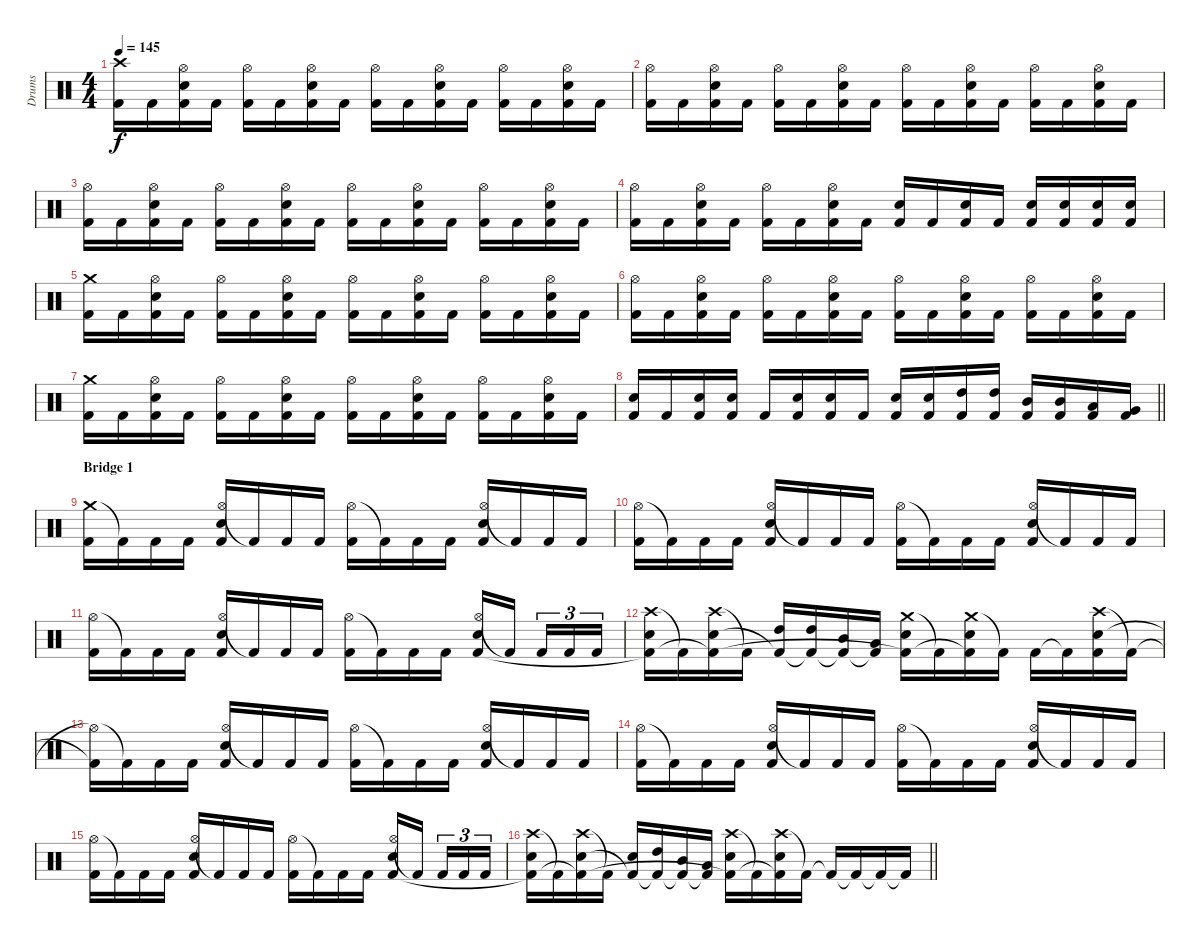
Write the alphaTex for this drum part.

\track ("Drums" "Drums") {instrument percussion}
\staff {score}
\articulation defaults
\ts (4 4)
\tempo 145
\clef neutral
\ks c
("Crash high (hit)" "Kick (hit) 2").16{dy f} "Kick (hit) 2".16 ("Hi-Hat (open)" "Electric Snare (hit)" "Kick (hit) 2").16 "Kick (hit) 2".16 ("Hi-Hat (open)" "Kick (hit) 2").16 "Kick (hit) 2".16 ("Hi-Hat (open)" "Electric Snare (hit)" "Kick (hit) 2").16 "Kick (hit) 2".16 ("Hi-Hat (open)" "Kick (hit) 2").16 "Kick (hit) 2".16 ("Hi-Hat (open)" "Electric Snare (hit)" "Kick (hit) 2").16 "Kick (hit) 2".16 ("Hi-Hat (open)" "Kick (hit) 2").16 "Kick (hit) 2".16 ("Hi-Hat (open)" "Electric Snare (hit)" "Kick (hit) 2").16 "Kick (hit) 2".16 |
("Hi-Hat (open)" "Kick (hit) 2").16 "Kick (hit) 2".16 ("Hi-Hat (open)" "Electric Snare (hit)" "Kick (hit) 2").16 "Kick (hit) 2".16 ("Hi-Hat (open)" "Kick (hit) 2").16 "Kick (hit) 2".16 ("Hi-Hat (open)" "Electric Snare (hit)" "Kick (hit) 2").16 "Kick (hit) 2".16 ("Hi-Hat (open)" "Kick (hit) 2").16 "Kick (hit) 2".16 ("Hi-Hat (open)" "Electric Snare (hit)" "Kick (hit) 2").16 "Kick (hit) 2".16 ("Hi-Hat (open)" "Kick (hit) 2").16 "Kick (hit) 2".16 ("Hi-Hat (open)" "Electric Snare (hit)" "Kick (hit) 2").16 "Kick (hit) 2".16 |
("Hi-Hat (open)" "Kick (hit) 2").16 "Kick (hit) 2".16 ("Hi-Hat (open)" "Electric Snare (hit)" "Kick (hit) 2").16 "Kick (hit) 2".16 ("Hi-Hat (open)" "Kick (hit) 2").16 "Kick (hit) 2".16 ("Hi-Hat (open)" "Electric Snare (hit)" "Kick (hit) 2").16 "Kick (hit) 2".16 ("Hi-Hat (open)" "Kick (hit) 2").16 "Kick (hit) 2".16 ("Hi-Hat (open)" "Electric Snare (hit)" "Kick (hit) 2").16 "Kick (hit) 2".16 ("Hi-Hat (open)" "Kick (hit) 2").16 "Kick (hit) 2".16 ("Hi-Hat (open)" "Electric Snare (hit)" "Kick (hit) 2").16 "Kick (hit) 2".16 |
("Hi-Hat (open)" "Kick (hit) 2").16 "Kick (hit) 2".16 ("Hi-Hat (open)" "Electric Snare (hit)" "Kick (hit) 2").16 "Kick (hit) 2".16 ("Hi-Hat (open)" "Kick (hit) 2").16 "Kick (hit) 2".16 ("Hi-Hat (open)" "Electric Snare (hit)" "Kick (hit) 2").16 "Kick (hit) 2".16 ("Electric Snare (hit)" "Kick (hit) 2").16 "Kick (hit) 2".16 ("Electric Snare (hit)" "Kick (hit) 2").16 "Kick (hit) 2".16 ("Electric Snare (hit)" "Kick (hit) 2").16 ("Electric Snare (hit)" "Kick (hit) 2").16 ("Electric Snare (hit)" "Kick (hit) 2").16 ("Electric Snare (hit)" "Kick (hit) 2").16 |
("Crash medium (hit)" "Kick (hit) 2").16 "Kick (hit) 2".16 ("Hi-Hat (open)" "Electric Snare (hit)" "Kick (hit) 2").16 "Kick (hit) 2".16 ("Hi-Hat (open)" "Kick (hit) 2").16 "Kick (hit) 2".16 ("Hi-Hat (open)" "Electric Snare (hit)" "Kick (hit) 2").16 "Kick (hit) 2".16 ("Hi-Hat (open)" "Kick (hit) 2").16 "Kick (hit) 2".16 ("Hi-Hat (open)" "Electric Snare (hit)" "Kick (hit) 2").16 "Kick (hit) 2".16 ("Hi-Hat (open)" "Kick (hit) 2").16 "Kick (hit) 2".16 ("Hi-Hat (open)" "Electric Snare (hit)" "Kick (hit) 2").16 "Kick (hit) 2".16 |
("Hi-Hat (open)" "Kick (hit) 2").16 "Kick (hit) 2".16 ("Hi-Hat (open)" "Electric Snare (hit)" "Kick (hit) 2").16 "Kick (hit) 2".16 ("Hi-Hat (open)" "Kick (hit) 2").16 "Kick (hit) 2".16 ("Hi-Hat (open)" "Electric Snare (hit)" "Kick (hit) 2").16 "Kick (hit) 2".16 ("Hi-Hat (open)" "Kick (hit) 2").16 "Kick (hit) 2".16 ("Hi-Hat (open)" "Electric Snare (hit)" "Kick (hit) 2").16 "Kick (hit) 2".16 ("Hi-Hat (open)" "Kick (hit) 2").16 "Kick (hit) 2".16 ("Hi-Hat (open)" "Electric Snare (hit)" "Kick (hit) 2").16 "Kick (hit) 2".16 |
("Crash medium (hit)" "Kick (hit) 2").16 "Kick (hit) 2".16 ("Hi-Hat (open)" "Electric Snare (hit)" "Kick (hit) 2").16 "Kick (hit) 2".16 ("Hi-Hat (open)" "Kick (hit) 2").16 "Kick (hit) 2".16 ("Hi-Hat (open)" "Electric Snare (hit)" "Kick (hit) 2").16 "Kick (hit) 2".16 ("Hi-Hat (open)" "Kick (hit) 2").16 "Kick (hit) 2".16 ("Hi-Hat (open)" "Electric Snare (hit)" "Kick (hit) 2").16 "Kick (hit) 2".16 ("Hi-Hat (open)" "Kick (hit) 2").16 "Kick (hit) 2".16 ("Hi-Hat (open)" "Electric Snare (hit)" "Kick (hit) 2").16 "Kick (hit) 2".16 |
\barLineRight lightlight
("Electric Snare (hit)" "Kick (hit) 2").16 "Kick (hit) 2".16 ("Electric Snare (hit)" "Kick (hit) 2").16 ("Electric Snare (hit)" "Kick (hit) 2").16 "Kick (hit) 2".16 ("Electric Snare (hit)" "Kick (hit) 2").16 ("Electric Snare (hit)" "Kick (hit) 2").16 "Kick (hit) 2".16 ("Electric Snare (hit)" "Kick (hit) 2").16 ("Electric Snare (hit)" "Kick (hit) 2").16 ("High Tom (hit)" "Kick (hit) 2").16 ("High Tom (hit)" "Kick (hit) 2").16 ("Mid Tom (hit)" "Kick (hit) 2").16 ("Mid Tom (hit)" "Kick (hit) 2").16 ("Low Tom (hit)" "Kick (hit) 2").16 ("Very Low Tom (hit)" "Kick (hit) 2").16 |
\section ("" "Bridge 1")
("Crash medium (hit)" "Kick (hit) 2").16 "Kick (hit) 2"{t}.16 "Kick (hit) 2".16 "Kick (hit) 2".16 ("Hi-Hat (open)" "Electric Snare (hit)" "Kick (hit) 2").16 "Kick (hit) 2"{t}.16 "Kick (hit) 2".16 "Kick (hit) 2".16 ("Hi-Hat (open)" "Kick (hit) 2").16 "Kick (hit) 2"{t}.16 "Kick (hit) 2".16 "Kick (hit) 2".16 ("Hi-Hat (open)" "Electric Snare (hit)" "Kick (hit) 2").16 "Kick (hit) 2"{t}.16 "Kick (hit) 2".16 "Kick (hit) 2".16 |
("Hi-Hat (open)" "Kick (hit) 2").16 "Kick (hit) 2"{t}.16 "Kick (hit) 2".16 "Kick (hit) 2".16 ("Hi-Hat (open)" "Electric Snare (hit)" "Kick (hit) 2").16 "Kick (hit) 2"{t}.16 "Kick (hit) 2".16 "Kick (hit) 2".16 ("Hi-Hat (open)" "Kick (hit) 2").16 "Kick (hit) 2"{t}.16 "Kick (hit) 2".16 "Kick (hit) 2".16 ("Hi-Hat (open)" "Electric Snare (hit)" "Kick (hit) 2").16 "Kick (hit) 2"{t}.16 "Kick (hit) 2".16 "Kick (hit) 2".16 |
("Hi-Hat (open)" "Kick (hit) 2").16 "Kick (hit) 2"{t}.16 "Kick (hit) 2".16 "Kick (hit) 2".16 ("Hi-Hat (open)" "Electric Snare (hit)" "Kick (hit) 2").16 "Kick (hit) 2"{t}.16 "Kick (hit) 2".16 "Kick (hit) 2".16 ("Hi-Hat (open)" "Kick (hit) 2").16 "Kick (hit) 2"{t}.16 "Kick (hit) 2".16 "Kick (hit) 2".16 ("Hi-Hat (open)" "Electric Snare (hit)" "Kick (hit) 2").16 "Kick (hit) 2"{t}.16{beam splitsecondary} "Kick (hit) 2".16{tu (3 2)} "Kick (hit) 2".16{tu (3 2)} "Kick (hit) 2".16{tu (3 2)} |
("Crash high (hit)" "Electric Snare (hit)" "Kick (hit) 2"{t}).16 "Kick (hit) 2"{t}.16 ("Crash high (hit)" "Electric Snare (hit)" "Kick (hit) 2"{t}).16 "Kick (hit) 2"{t}.16 ("High Tom (hit)" "Kick (hit) 2"{t}).16 ("High Tom (hit)" "Kick (hit) 2"{t}).16 ("Mid Tom (hit)" "Kick (hit) 2"{t}).16 ("Low Tom (hit)" "Kick (hit) 2"{t}).16 ("Crash medium (hit)" "Electric Snare (hit)" "Kick (hit) 2"{t}).16 "Kick (hit) 2"{t}.16 ("Crash medium (hit)" "Electric Snare (hit)" "Kick (hit) 2"{t}).16 "Kick (hit) 2"{t}.16 "Kick (hit) 2".16 "Kick (hit) 2"{t}.16 ("Crash high (hit)" "Electric Snare (hit)" "Kick (hit) 2").16 "Kick (hit) 2"{t}.16 |
("Hi-Hat (open)"{t} "Kick (hit) 2"{t}).16 "Kick (hit) 2"{t}.16 "Kick (hit) 2".16 "Kick (hit) 2".16 ("Hi-Hat (open)" "Electric Snare (hit)" "Kick (hit) 2").16 "Kick (hit) 2"{t}.16 "Kick (hit) 2".16 "Kick (hit) 2".16 ("Hi-Hat (open)" "Kick (hit) 2").16 "Kick (hit) 2"{t}.16 "Kick (hit) 2".16 "Kick (hit) 2".16 ("Hi-Hat (open)" "Electric Snare (hit)" "Kick (hit) 2").16 "Kick (hit) 2"{t}.16 "Kick (hit) 2".16 "Kick (hit) 2".16 |
("Hi-Hat (open)" "Kick (hit) 2").16 "Kick (hit) 2"{t}.16 "Kick (hit) 2".16 "Kick (hit) 2".16 ("Hi-Hat (open)" "Electric Snare (hit)" "Kick (hit) 2").16 "Kick (hit) 2"{t}.16 "Kick (hit) 2".16 "Kick (hit) 2".16 ("Hi-Hat (open)" "Kick (hit) 2").16 "Kick (hit) 2"{t}.16 "Kick (hit) 2".16 "Kick (hit) 2".16 ("Hi-Hat (open)" "Electric Snare (hit)" "Kick (hit) 2").16 "Kick (hit) 2"{t}.16 "Kick (hit) 2".16 "Kick (hit) 2".16 |
("Hi-Hat (open)" "Kick (hit) 2").16 "Kick (hit) 2"{t}.16 "Kick (hit) 2".16 "Kick (hit) 2".16 ("Hi-Hat (open)" "Electric Snare (hit)" "Kick (hit) 2").16 "Kick (hit) 2"{t}.16 "Kick (hit) 2".16 "Kick (hit) 2".16 ("Hi-Hat (open)" "Kick (hit) 2").16 "Kick (hit) 2"{t}.16 "Kick (hit) 2".16 "Kick (hit) 2".16 ("Hi-Hat (open)" "Electric Snare (hit)" "Kick (hit) 2").16 "Kick (hit) 2"{t}.16{beam splitsecondary} "Kick (hit) 2".16{tu (3 2)} "Kick (hit) 2".16{tu (3 2)} "Kick (hit) 2".16{tu (3 2)} |
\barLineRight lightlight
("Crash high (hit)" "Electric Snare (hit)" "Kick (hit) 2"{t}).16 "Kick (hit) 2"{t}.16 ("Crash high (hit)" "Electric Snare (hit)" "Kick (hit) 2"{t}).16 "Kick (hit) 2"{t}.16 ("Electric Snare (hit)" "Kick (hit) 2"{t}).16 ("High Tom (hit)" "Kick (hit) 2"{t}).16 ("Mid Tom (hit)" "Kick (hit) 2"{t}).16 ("Low Tom (hit)" "Kick (hit) 2"{t}).16 ("Crash high (hit)" "Electric Snare (hit)" "Kick (hit) 2"{t}).16 "Kick (hit) 2"{t}.16 ("Crash high (hit)" "Electric Snare (hit)" "Kick (hit) 2"{t}).16 "Kick (hit) 2"{t}.16 "Kick (hit) 2"{t}.16 "Kick (hit) 2"{t}.16 "Kick (hit) 2"{t}.16 "Kick (hit) 2"{t}.16
